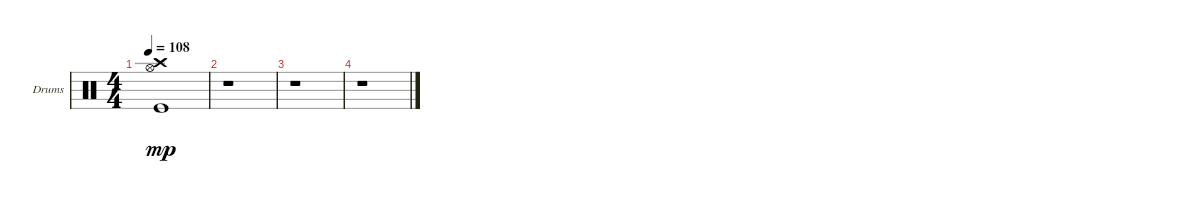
\bracketExtendMode groupsimilarinstruments
\firstSystemTrackNameOrientation horizontal
\otherSystemsTrackNameOrientation horizontal
\track ("Е. Кулаков" "Drums") {instrument percussion}
\staff {score}
\articulation defaults
\ts (4 4)
\tempo 108
\clef neutral
\ks c
("Hi-Hat (open)" "Crash high (hit)" "Kick (hit)").1{dy mp} |
r.1 |
r.1 |
r.1
